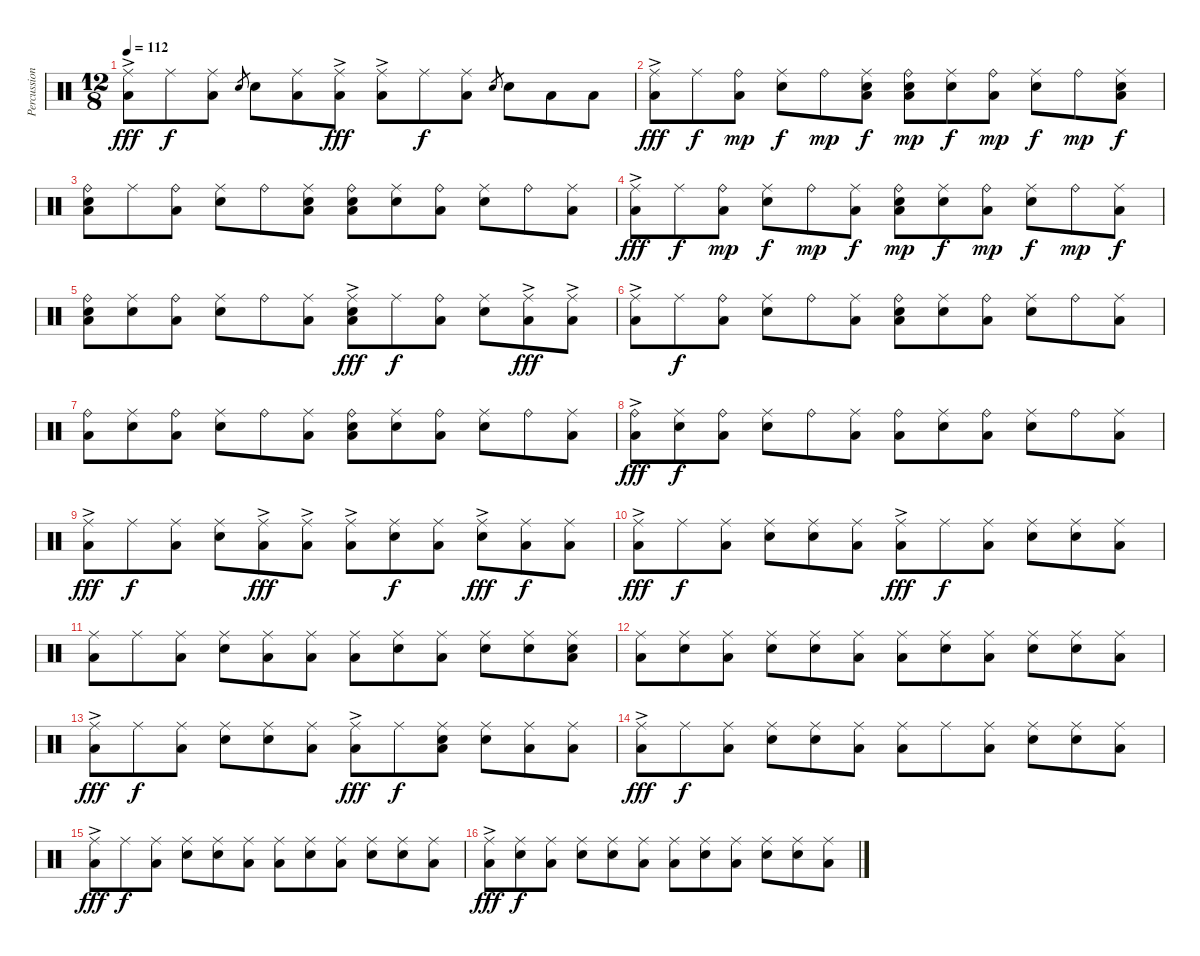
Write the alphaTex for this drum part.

\track ("Percussion" "Percussion") {instrument percussion}
\staff {score}
\articulation defaults
\ts (12 8)
\tempo 112
\clef neutral
\ks c
("Ride (middle)"{ac} "Low Floor Tom (hit)").8{dy fff} "Ride (middle)".8{dy f} ("Ride (middle)" "Low Floor Tom (hit)").8 "Snare (hit) 2".8{gr} "Snare (hit) 2".8 ("Ride (middle)" "Low Floor Tom (hit)").8 ("Ride (middle)"{ac} "Low Floor Tom (hit)").8{dy fff} ("Ride (middle)"{ac} "Low Floor Tom (hit)").8 "Ride (middle)".8{dy f} ("Ride (middle)" "Low Floor Tom (hit)").8 "Snare (hit) 2".8{gr} "Snare (hit) 2".8 "Low Tom (hit)".8 "Low Floor Tom (hit)".8 |
("Ride (middle)"{ac} "Low Floor Tom (hit)").8{dy fff} "Ride (middle)".8{dy f} ("Ride (bell)" "Low Floor Tom (hit)").8{dy mp} ("Ride (middle)" "Snare (hit) 2").8{dy f} "Ride (bell)".8{dy mp} ("Ride (middle)" "Snare (hit) 2" "Low Floor Tom (hit)").8{dy f} ("Ride (bell)" "Snare (hit) 2" "Low Floor Tom (hit)").8{dy mp} ("Ride (middle)" "Snare (hit) 2").8{dy f} ("Ride (bell)" "Low Floor Tom (hit)").8{dy mp} ("Ride (middle)" "Snare (hit) 2").8{dy f} "Ride (bell)".8{dy mp} ("Ride (middle)" "Snare (hit) 2" "Low Floor Tom (hit)").8{dy f} |
("Ride (bell)" "Snare (hit) 2" "Low Floor Tom (hit)").8 "Ride (middle)".8 ("Ride (bell)" "Low Floor Tom (hit)").8 ("Ride (middle)" "Snare (hit) 2").8 "Ride (bell)".8 ("Ride (middle)" "Snare (hit) 2" "Low Floor Tom (hit)").8 ("Ride (bell)" "Snare (hit) 2" "Low Floor Tom (hit)").8 ("Ride (middle)" "Snare (hit) 2").8 ("Ride (bell)" "Low Floor Tom (hit)").8 ("Ride (middle)" "Snare (hit) 2").8 "Ride (bell)".8 ("Ride (middle)" "Low Floor Tom (hit)").8 |
("Ride (middle)"{ac} "Low Floor Tom (hit)").8{dy fff} "Ride (middle)".8{dy f} ("Ride (bell)" "Low Floor Tom (hit)").8{dy mp} ("Ride (middle)" "Snare (hit) 2").8{dy f} "Ride (bell)".8{dy mp} ("Ride (middle)" "Low Floor Tom (hit)").8{dy f} ("Ride (bell)" "Snare (hit) 2" "Low Floor Tom (hit)").8{dy mp} ("Ride (middle)" "Snare (hit) 2").8{dy f} ("Ride (bell)" "Low Floor Tom (hit)").8{dy mp} ("Ride (middle)" "Snare (hit) 2").8{dy f} "Ride (bell)".8{dy mp} ("Ride (middle)" "Low Floor Tom (hit)").8{dy f} |
("Ride (bell)" "Snare (hit) 2" "Low Floor Tom (hit)").8 ("Ride (middle)" "Snare (hit) 2").8 ("Ride (bell)" "Low Floor Tom (hit)").8 ("Ride (middle)" "Snare (hit) 2").8 "Ride (bell)".8 ("Ride (middle)" "Low Floor Tom (hit)").8 ("Ride (middle)"{ac} "Snare (hit) 2" "Low Floor Tom (hit)").8{dy fff} "Ride (middle)".8{dy f} ("Ride (bell)" "Low Floor Tom (hit)").8 ("Ride (middle)" "Snare (hit) 2").8 ("Ride (middle)"{ac} "Low Floor Tom (hit)").8{dy fff} ("Ride (middle)"{ac} "Low Floor Tom (hit)").8 |
("Ride (middle)"{ac} "Low Floor Tom (hit)").8 "Ride (middle)".8{dy f} ("Ride (bell)" "Low Floor Tom (hit)").8 ("Ride (middle)" "Snare (hit) 2").8 "Ride (bell)".8 ("Ride (middle)" "Low Floor Tom (hit)").8 ("Ride (bell)" "Snare (hit) 2" "Low Floor Tom (hit)").8 ("Ride (middle)" "Snare (hit) 2").8 ("Ride (bell)" "Low Floor Tom (hit)").8 ("Ride (middle)" "Snare (hit) 2").8 "Ride (bell)".8 ("Ride (middle)" "Low Floor Tom (hit)").8 |
("Ride (bell)" "Low Floor Tom (hit)").8 ("Ride (middle)" "Snare (hit) 2").8 ("Ride (bell)" "Low Floor Tom (hit)").8 ("Ride (middle)" "Snare (hit) 2").8 "Ride (bell)".8 ("Ride (middle)" "Low Floor Tom (hit)").8 ("Ride (bell)" "Snare (hit) 2" "Low Floor Tom (hit)").8 ("Ride (middle)" "Snare (hit) 2").8 ("Ride (bell)" "Low Floor Tom (hit)").8 ("Ride (middle)" "Snare (hit) 2").8 "Ride (bell)".8 ("Ride (middle)" "Low Floor Tom (hit)").8 |
("Ride (bell)"{ac} "Low Floor Tom (hit)").8{dy fff} ("Ride (middle)" "Snare (hit) 2").8{dy f} ("Ride (bell)" "Low Floor Tom (hit)").8 ("Ride (middle)" "Snare (hit) 2").8 "Ride (bell)".8 ("Ride (middle)" "Low Floor Tom (hit)").8 ("Ride (bell)" "Low Floor Tom (hit)").8 ("Ride (middle)" "Snare (hit) 2").8 ("Ride (bell)" "Low Floor Tom (hit)").8 ("Ride (middle)" "Snare (hit) 2").8 "Ride (bell)".8 ("Ride (middle)" "Low Floor Tom (hit)").8 |
("Ride (middle)"{ac} "Low Floor Tom (hit)").8{dy fff} "Ride (middle)".8{dy f} ("Ride (middle)" "Low Floor Tom (hit)").8 ("Ride (middle)" "Snare (hit) 2").8 ("Ride (middle)"{ac} "Low Floor Tom (hit)").8{dy fff} ("Ride (middle)"{ac} "Low Floor Tom (hit)").8 ("Ride (middle)"{ac} "Low Floor Tom (hit)").8 ("Ride (middle)" "Snare (hit) 2").8{dy f} ("Ride (middle)" "Low Floor Tom (hit)").8 ("Ride (middle)"{ac} "Snare (hit) 2").8{dy fff} ("Ride (middle)" "Low Floor Tom (hit)").8{dy f} ("Ride (middle)" "Low Floor Tom (hit)").8 |
("Ride (middle)"{ac} "Low Floor Tom (hit)").8{dy fff} "Ride (middle)".8{dy f} ("Ride (middle)" "Low Floor Tom (hit)").8 ("Ride (middle)" "Snare (hit) 2").8 ("Ride (middle)" "Snare (hit) 2").8 ("Ride (middle)" "Low Floor Tom (hit)").8 ("Ride (middle)"{ac} "Low Floor Tom (hit)").8{dy fff} "Ride (middle)".8{dy f} ("Ride (middle)" "Low Floor Tom (hit)").8 ("Ride (middle)" "Snare (hit) 2").8 ("Ride (middle)" "Snare (hit) 2").8 ("Ride (middle)" "Low Floor Tom (hit)").8 |
("Ride (middle)" "Low Floor Tom (hit)").8 "Ride (middle)".8 ("Ride (middle)" "Low Floor Tom (hit)").8 ("Ride (middle)" "Snare (hit) 2").8 ("Ride (middle)" "Low Floor Tom (hit)").8 ("Ride (middle)" "Low Floor Tom (hit)").8 ("Ride (middle)" "Low Floor Tom (hit)").8 ("Ride (middle)" "Snare (hit) 2").8 ("Ride (middle)" "Low Floor Tom (hit)").8 ("Ride (middle)" "Snare (hit) 2").8 ("Ride (middle)" "Snare (hit) 2").8 ("Ride (middle)" "Snare (hit) 2" "Low Floor Tom (hit)").8 |
("Ride (middle)" "Low Floor Tom (hit)").8 ("Ride (middle)" "Snare (hit) 2").8 ("Ride (middle)" "Low Floor Tom (hit)").8 ("Ride (middle)" "Snare (hit) 2").8 ("Ride (middle)" "Snare (hit) 2").8 ("Ride (middle)" "Low Floor Tom (hit)").8 ("Ride (middle)" "Low Floor Tom (hit)").8 ("Ride (middle)" "Snare (hit) 2").8 ("Ride (middle)" "Low Floor Tom (hit)").8 ("Ride (middle)" "Snare (hit) 2").8 ("Ride (middle)" "Snare (hit) 2").8 ("Ride (middle)" "Low Floor Tom (hit)").8 |
("Ride (middle)"{ac} "Low Floor Tom (hit)").8{dy fff} "Ride (middle)".8{dy f} ("Ride (middle)" "Low Floor Tom (hit)").8 ("Ride (middle)" "Snare (hit) 2").8 ("Ride (middle)" "Snare (hit) 2").8 ("Ride (middle)" "Low Floor Tom (hit)").8 ("Ride (middle)"{ac} "Low Floor Tom (hit)").8{dy fff} "Ride (middle)".8{dy f} ("Ride (middle)" "Snare (hit) 2" "Low Floor Tom (hit)").8 ("Ride (middle)" "Snare (hit) 2").8 ("Ride (middle)" "Low Floor Tom (hit)").8 ("Ride (middle)" "Low Floor Tom (hit)").8 |
("Ride (middle)"{ac} "Low Floor Tom (hit)").8{dy fff} "Ride (middle)".8{dy f} ("Ride (middle)" "Low Floor Tom (hit)").8 ("Ride (middle)" "Snare (hit) 2").8 ("Ride (middle)" "Snare (hit) 2").8 ("Ride (middle)" "Low Floor Tom (hit)").8 ("Ride (middle)" "Low Floor Tom (hit)").8 "Ride (middle)".8 ("Ride (middle)" "Low Floor Tom (hit)").8 ("Ride (middle)" "Snare (hit) 2").8 ("Ride (middle)" "Snare (hit) 2").8 ("Ride (middle)" "Low Floor Tom (hit)").8 |
("Ride (middle)"{ac} "Low Floor Tom (hit)").8{dy fff} "Ride (middle)".8{dy f} ("Ride (middle)" "Low Floor Tom (hit)").8 ("Ride (middle)" "Snare (hit) 2").8 ("Ride (middle)" "Snare (hit) 2").8 ("Ride (middle)" "Low Floor Tom (hit)").8 ("Ride (middle)" "Low Floor Tom (hit)").8 ("Ride (middle)" "Snare (hit) 2").8 ("Ride (middle)" "Low Floor Tom (hit)").8 ("Ride (middle)" "Snare (hit) 2").8 ("Ride (middle)" "Snare (hit) 2").8 ("Ride (middle)" "Low Floor Tom (hit)").8 |
("Ride (middle)"{ac} "Low Floor Tom (hit)").8{dy fff} ("Ride (middle)" "Snare (hit) 2").8{dy f} ("Ride (middle)" "Low Floor Tom (hit)").8 ("Ride (middle)" "Snare (hit) 2").8 ("Ride (middle)" "Snare (hit) 2").8 ("Ride (middle)" "Low Floor Tom (hit)").8 ("Ride (middle)" "Low Floor Tom (hit)").8 ("Ride (middle)" "Snare (hit) 2").8 ("Ride (middle)" "Low Floor Tom (hit)").8 ("Ride (middle)" "Snare (hit) 2").8 ("Ride (middle)" "Snare (hit) 2").8 ("Ride (middle)" "Low Floor Tom (hit)").8
